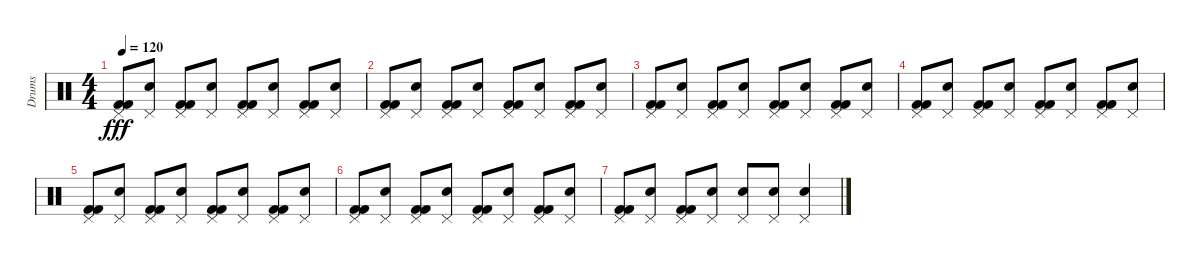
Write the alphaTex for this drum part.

\track ("Drums" "Drums") {instrument percussion}
\staff {score}
\articulation defaults
\ts (4 4)
\tempo 120
\clef neutral
\ks c
("Pedal Hi-Hat (hit)" "Kick (hit) 2" "Kick (hit) 2").8{dy fff} ("Pedal Hi-Hat (hit)" "Electric Snare (hit)").8 ("Pedal Hi-Hat (hit)" "Kick (hit) 2" "Kick (hit) 2").8 ("Pedal Hi-Hat (hit)" "Electric Snare (hit)").8 ("Pedal Hi-Hat (hit)" "Kick (hit) 2" "Kick (hit) 2").8 ("Pedal Hi-Hat (hit)" "Electric Snare (hit)").8 ("Pedal Hi-Hat (hit)" "Kick (hit) 2" "Kick (hit) 2").8 ("Pedal Hi-Hat (hit)" "Electric Snare (hit)").8 |
("Pedal Hi-Hat (hit)" "Kick (hit) 2" "Kick (hit) 2").8 ("Pedal Hi-Hat (hit)" "Electric Snare (hit)").8 ("Pedal Hi-Hat (hit)" "Kick (hit) 2" "Kick (hit) 2").8 ("Pedal Hi-Hat (hit)" "Electric Snare (hit)").8 ("Pedal Hi-Hat (hit)" "Kick (hit) 2" "Kick (hit) 2").8 ("Pedal Hi-Hat (hit)" "Electric Snare (hit)").8 ("Pedal Hi-Hat (hit)" "Kick (hit) 2" "Kick (hit) 2").8 ("Pedal Hi-Hat (hit)" "Electric Snare (hit)").8 |
("Pedal Hi-Hat (hit)" "Kick (hit) 2" "Kick (hit) 2").8 ("Pedal Hi-Hat (hit)" "Electric Snare (hit)").8 ("Pedal Hi-Hat (hit)" "Kick (hit) 2" "Kick (hit) 2").8 ("Pedal Hi-Hat (hit)" "Electric Snare (hit)").8 ("Pedal Hi-Hat (hit)" "Kick (hit) 2" "Kick (hit) 2").8 ("Pedal Hi-Hat (hit)" "Electric Snare (hit)").8 ("Pedal Hi-Hat (hit)" "Kick (hit) 2" "Kick (hit) 2").8 ("Pedal Hi-Hat (hit)" "Electric Snare (hit)").8 |
("Pedal Hi-Hat (hit)" "Kick (hit) 2" "Kick (hit) 2").8 ("Pedal Hi-Hat (hit)" "Electric Snare (hit)").8 ("Pedal Hi-Hat (hit)" "Kick (hit) 2" "Kick (hit) 2").8 ("Pedal Hi-Hat (hit)" "Electric Snare (hit)").8 ("Pedal Hi-Hat (hit)" "Kick (hit) 2" "Kick (hit) 2").8 ("Pedal Hi-Hat (hit)" "Electric Snare (hit)").8 ("Pedal Hi-Hat (hit)" "Kick (hit) 2" "Kick (hit) 2").8 ("Pedal Hi-Hat (hit)" "Electric Snare (hit)").8 |
("Pedal Hi-Hat (hit)" "Kick (hit) 2" "Kick (hit) 2").8 ("Pedal Hi-Hat (hit)" "Electric Snare (hit)").8 ("Pedal Hi-Hat (hit)" "Kick (hit) 2" "Kick (hit) 2").8 ("Pedal Hi-Hat (hit)" "Electric Snare (hit)").8 ("Pedal Hi-Hat (hit)" "Kick (hit) 2" "Kick (hit) 2").8 ("Pedal Hi-Hat (hit)" "Electric Snare (hit)").8 ("Pedal Hi-Hat (hit)" "Kick (hit) 2" "Kick (hit) 2").8 ("Pedal Hi-Hat (hit)" "Electric Snare (hit)").8 |
("Pedal Hi-Hat (hit)" "Kick (hit) 2" "Kick (hit) 2").8 ("Pedal Hi-Hat (hit)" "Electric Snare (hit)").8 ("Pedal Hi-Hat (hit)" "Kick (hit) 2" "Kick (hit) 2").8 ("Pedal Hi-Hat (hit)" "Electric Snare (hit)").8 ("Pedal Hi-Hat (hit)" "Kick (hit) 2" "Kick (hit) 2").8 ("Pedal Hi-Hat (hit)" "Electric Snare (hit)").8 ("Pedal Hi-Hat (hit)" "Kick (hit) 2" "Kick (hit) 2").8 ("Pedal Hi-Hat (hit)" "Electric Snare (hit)").8 |
("Pedal Hi-Hat (hit)" "Kick (hit) 2" "Kick (hit) 2").8 ("Pedal Hi-Hat (hit)" "Electric Snare (hit)").8 ("Pedal Hi-Hat (hit)" "Kick (hit) 2" "Kick (hit) 2").8 ("Pedal Hi-Hat (hit)" "Electric Snare (hit)").8 ("Pedal Hi-Hat (hit)" "Electric Snare (hit)").8 ("Pedal Hi-Hat (hit)" "Electric Snare (hit)").8 ("Pedal Hi-Hat (hit)" "Electric Snare (hit)").4
